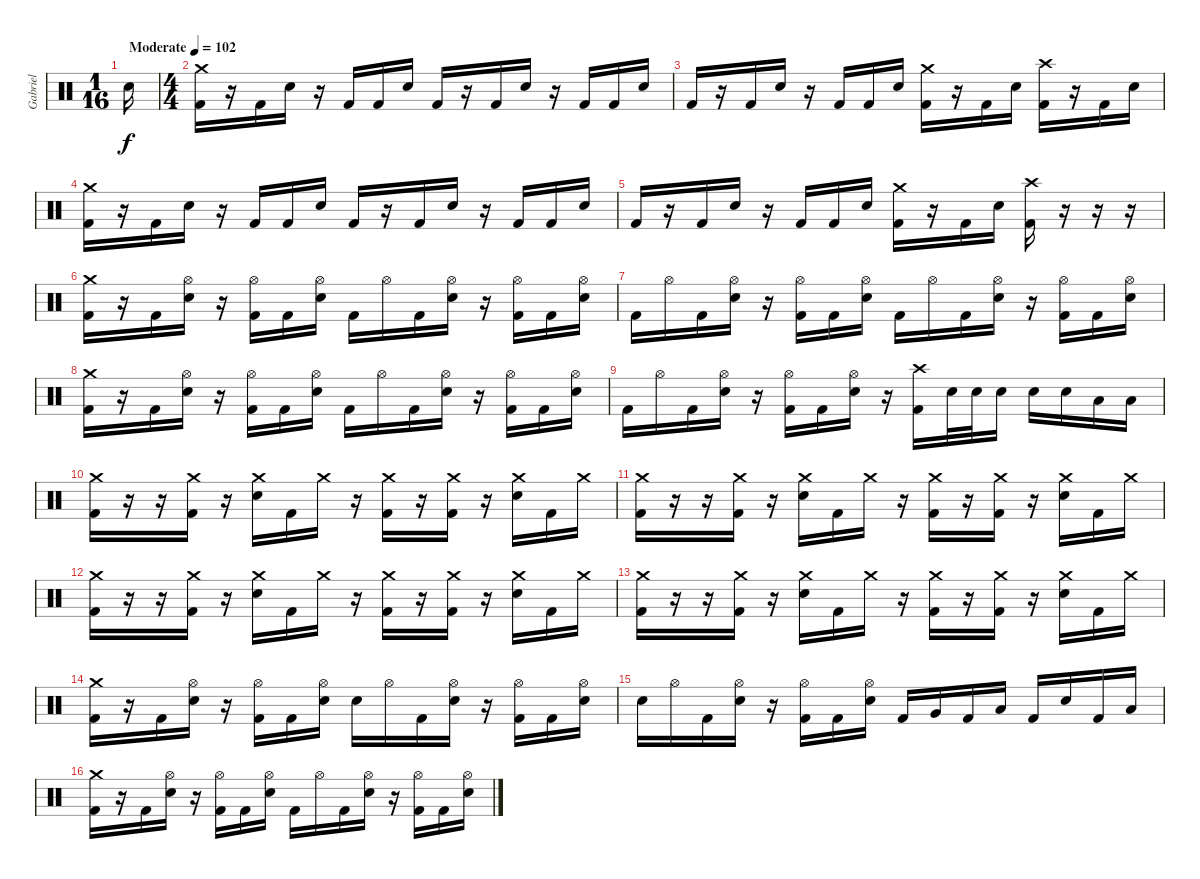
\track ("Gabriel" "Gabriel") {instrument percussion}
\staff {score}
\articulation defaults
\ts (1 16)
\tempo (102 "Moderate")
\clef neutral
\ks c "Electric Snare (hit)".16{dy f}
|
\ts (4 4)
("Crash medium (hit)" "Kick (hit) 2").16 r.16 "Kick (hit) 2".16 "Electric Snare (hit)".16 r.16 "Kick (hit) 2".16 "Kick (hit) 2".16 "Electric Snare (hit)".16 "Kick (hit) 2".16 r.16 "Kick (hit) 2".16 "Electric Snare (hit)".16 r.16 "Kick (hit) 2".16 "Kick (hit) 2".16 "Electric Snare (hit)".16 |
"Kick (hit) 2".16 r.16 "Kick (hit) 2".16 "Electric Snare (hit)".16 r.16 "Kick (hit) 2".16 "Kick (hit) 2".16 "Electric Snare (hit)".16 ("Crash medium (hit)" "Kick (hit) 2").16 r.16 "Kick (hit) 2".16 "Electric Snare (hit)".16 ("Crash high (hit)" "Kick (hit) 2").16 r.16 "Kick (hit) 2".16 "Electric Snare (hit)".16 |
("Crash medium (hit)" "Kick (hit) 2").16 r.16 "Kick (hit) 2".16 "Electric Snare (hit)".16 r.16 "Kick (hit) 2".16 "Kick (hit) 2".16 "Electric Snare (hit)".16 "Kick (hit) 2".16 r.16 "Kick (hit) 2".16 "Electric Snare (hit)".16 r.16 "Kick (hit) 2".16 "Kick (hit) 2".16 "Electric Snare (hit)".16 |
"Kick (hit) 2".16 r.16 "Kick (hit) 2".16 "Electric Snare (hit)".16 r.16 "Kick (hit) 2".16 "Kick (hit) 2".16 "Electric Snare (hit)".16 ("Crash medium (hit)" "Kick (hit) 2").16 r.16 "Kick (hit) 2".16 "Electric Snare (hit)".16 ("Crash high (hit)" "Kick (hit) 2").16 r.16 r.16 r.16 |
("Crash medium (hit)" "Kick (hit) 2").16 r.16 "Kick (hit) 2".16 ("Hi-Hat (open)" "Electric Snare (hit)").16 r.16 ("Hi-Hat (open)" "Kick (hit) 2").16 "Kick (hit) 2".16 ("Hi-Hat (open)" "Electric Snare (hit)").16 "Kick (hit) 2".16 "Hi-Hat (open)".16 "Kick (hit) 2".16 ("Hi-Hat (open)" "Electric Snare (hit)").16 r.16 ("Hi-Hat (open)" "Kick (hit) 2").16 "Kick (hit) 2".16 ("Hi-Hat (open)" "Electric Snare (hit)").16 |
"Kick (hit) 2".16 "Hi-Hat (open)".16 "Kick (hit) 2".16 ("Hi-Hat (open)" "Electric Snare (hit)").16 r.16 ("Hi-Hat (open)" "Kick (hit) 2").16 "Kick (hit) 2".16 ("Hi-Hat (open)" "Electric Snare (hit)").16 "Kick (hit) 2".16 "Hi-Hat (open)".16 "Kick (hit) 2".16 ("Hi-Hat (open)" "Electric Snare (hit)").16 r.16 ("Hi-Hat (open)" "Kick (hit) 2").16 "Kick (hit) 2".16 ("Hi-Hat (open)" "Electric Snare (hit)").16 |
("Crash medium (hit)" "Kick (hit) 2").16 r.16 "Kick (hit) 2".16 ("Hi-Hat (open)" "Electric Snare (hit)").16 r.16 ("Hi-Hat (open)" "Kick (hit) 2").16 "Kick (hit) 2".16 ("Hi-Hat (open)" "Electric Snare (hit)").16 "Kick (hit) 2".16 "Hi-Hat (open)".16 "Kick (hit) 2".16 ("Hi-Hat (open)" "Electric Snare (hit)").16 r.16 ("Hi-Hat (open)" "Kick (hit) 2").16 "Kick (hit) 2".16 ("Hi-Hat (open)" "Electric Snare (hit)").16 |
"Kick (hit) 2".16 "Hi-Hat (open)".16 "Kick (hit) 2".16 ("Hi-Hat (open)" "Electric Snare (hit)").16 r.16 ("Hi-Hat (open)" "Kick (hit) 2").16 "Kick (hit) 2".16 ("Hi-Hat (open)" "Electric Snare (hit)").16 r.16 ("Crash high (hit)" "Kick (hit) 2").16 "Electric Snare (hit)".32 "Electric Snare (hit)".32 "Electric Snare (hit)".16 "Electric Snare (hit)".16 "Electric Snare (hit)".16 "Low Tom (hit)".16 "Low Tom (hit)".16 |
("Crash medium (hit)" "Kick (hit) 2").16 r.16 r.16 ("Crash medium (hit)" "Kick (hit) 2").16 r.16 ("Crash medium (hit)" "Electric Snare (hit)").16 "Kick (hit) 2".16 "Crash medium (hit)".16 r.16 ("Crash medium (hit)" "Kick (hit) 2").16 r.16 ("Crash medium (hit)" "Kick (hit) 2").16 r.16 ("Crash medium (hit)" "Electric Snare (hit)").16 "Kick (hit) 2".16 "Crash medium (hit)".16 |
("Crash medium (hit)" "Kick (hit) 2").16 r.16 r.16 ("Crash medium (hit)" "Kick (hit) 2").16 r.16 ("Crash medium (hit)" "Electric Snare (hit)").16 "Kick (hit) 2".16 "Crash medium (hit)".16 r.16 ("Crash medium (hit)" "Kick (hit) 2").16 r.16 ("Crash medium (hit)" "Kick (hit) 2").16 r.16 ("Crash medium (hit)" "Electric Snare (hit)").16 "Kick (hit) 2".16 "Crash medium (hit)".16 |
("Crash medium (hit)" "Kick (hit) 2").16 r.16 r.16 ("Crash medium (hit)" "Kick (hit) 2").16 r.16 ("Crash medium (hit)" "Electric Snare (hit)").16 "Kick (hit) 2".16 "Crash medium (hit)".16 r.16 ("Crash medium (hit)" "Kick (hit) 2").16 r.16 ("Crash medium (hit)" "Kick (hit) 2").16 r.16 ("Crash medium (hit)" "Electric Snare (hit)").16 "Kick (hit) 2".16 "Crash medium (hit)".16 |
("Crash medium (hit)" "Kick (hit) 2").16 r.16 r.16 ("Crash medium (hit)" "Kick (hit) 2").16 r.16 ("Crash medium (hit)" "Electric Snare (hit)").16 "Kick (hit) 2".16 "Crash medium (hit)".16 r.16 ("Crash medium (hit)" "Kick (hit) 2").16 r.16 ("Crash medium (hit)" "Kick (hit) 2").16 r.16 ("Crash medium (hit)" "Electric Snare (hit)").16 "Kick (hit) 2".16 "Crash medium (hit)".16 |
("Crash medium (hit)" "Kick (hit) 2").16 r.16 "Kick (hit) 2".16 ("Hi-Hat (open)" "Electric Snare (hit)").16 r.16 ("Hi-Hat (open)" "Kick (hit) 2").16 "Kick (hit) 2".16 ("Hi-Hat (open)" "Electric Snare (hit)").16 "Electric Snare (hit)".16 "Hi-Hat (open)".16 "Kick (hit) 2".16 ("Hi-Hat (open)" "Electric Snare (hit)").16 r.16 ("Hi-Hat (open)" "Kick (hit) 2").16 "Kick (hit) 2".16 ("Hi-Hat (open)" "Electric Snare (hit)").16 |
"Electric Snare (hit)".16 "Hi-Hat (open)".16 "Kick (hit) 2".16 ("Hi-Hat (open)" "Electric Snare (hit)").16 r.16 ("Hi-Hat (open)" "Kick (hit) 2").16 "Kick (hit) 2".16 ("Hi-Hat (open)" "Electric Snare (hit)").16 "Kick (hit) 2".16 "Very Low Tom (hit)".16 "Kick (hit) 2".16 "Low Tom (hit)".16 "Kick (hit) 2".16 "Electric Snare (hit)".16 "Kick (hit) 2".16 "Low Tom (hit)".16 |
("Crash medium (hit)" "Kick (hit) 2").16 r.16 "Kick (hit) 2".16 ("Hi-Hat (open)" "Electric Snare (hit)").16 r.16 ("Hi-Hat (open)" "Kick (hit) 2").16 "Kick (hit) 2".16 ("Hi-Hat (open)" "Electric Snare (hit)").16 "Kick (hit) 2".16 "Hi-Hat (open)".16 "Kick (hit) 2".16 ("Hi-Hat (open)" "Electric Snare (hit)").16 r.16 ("Hi-Hat (open)" "Kick (hit) 2").16 "Kick (hit) 2".16 ("Hi-Hat (open)" "Electric Snare (hit)").16
